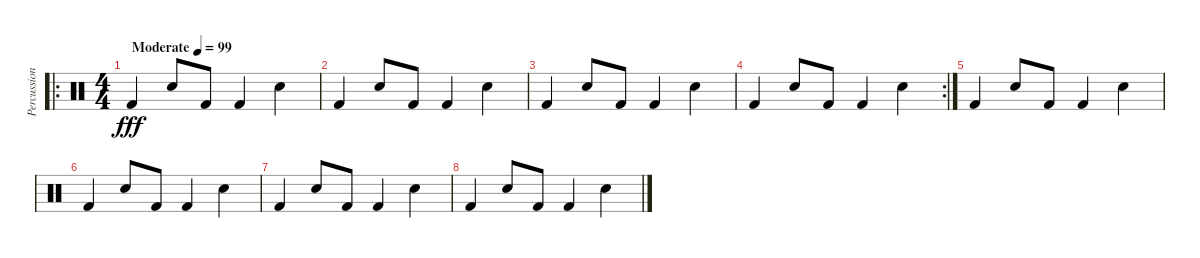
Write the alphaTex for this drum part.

\track ("Percussion" "Percussion") {instrument percussion}
\staff {score}
\articulation defaults
\ro
\ts (4 4)
\tempo (99 "Moderate")
\clef neutral
\ks c "Kick (hit) 2".4{dy fff} "Hand Clap (hit)".8 "Kick (hit) 2".8 "Kick (hit) 2".4 "Hand Clap (hit)".4
|
"Kick (hit) 2".4 "Hand Clap (hit)".8 "Kick (hit) 2".8 "Kick (hit) 2".4 "Hand Clap (hit)".4 |
"Kick (hit) 2".4 "Hand Clap (hit)".8 "Kick (hit) 2".8 "Kick (hit) 2".4 "Hand Clap (hit)".4 |
\rc 2 "Kick (hit) 2".4 "Hand Clap (hit)".8 "Kick (hit) 2".8 "Kick (hit) 2".4 "Hand Clap (hit)".4
|
"Kick (hit) 2".4{volume 0} "Hand Clap (hit)".8 "Kick (hit) 2".8 "Kick (hit) 2".4 "Hand Clap (hit)".4 |
"Kick (hit) 2".4 "Hand Clap (hit)".8 "Kick (hit) 2".8 "Kick (hit) 2".4 "Hand Clap (hit)".4 |
"Kick (hit) 2".4 "Hand Clap (hit)".8 "Kick (hit) 2".8 "Kick (hit) 2".4 "Hand Clap (hit)".4 |
"Kick (hit) 2".4 "Hand Clap (hit)".8 "Kick (hit) 2".8 "Kick (hit) 2".4 "Hand Clap (hit)".4
